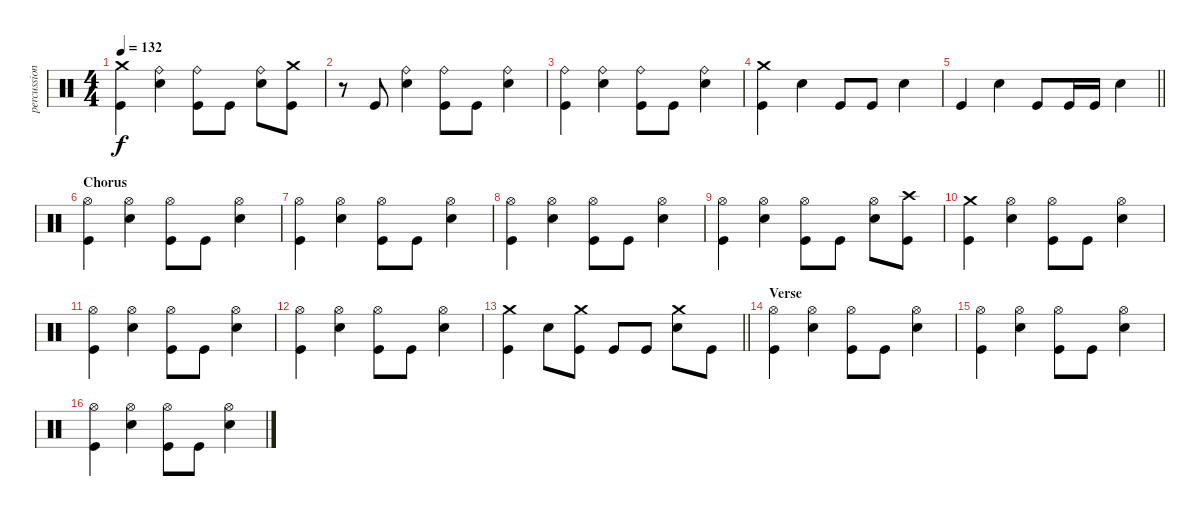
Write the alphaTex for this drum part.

\track ("percussion" "percussion") {instrument percussion}
\staff {score}
\articulation defaults
\ts (4 4)
\tempo 132
\clef neutral
\ks c
("Crash medium (hit)" "Kick (hit)").4{dy f} ("Ride (bell)" "Snare (hit) 2").4 ("Ride (bell)" "Kick (hit)").8 "Kick (hit)".8 ("Ride (bell)" "Snare (hit) 2").8 ("Crash medium (hit)" "Kick (hit)").8 |
r.8 "Kick (hit)".8 ("Ride (bell)" "Snare (hit) 2").4 ("Ride (bell)" "Kick (hit)").8 "Kick (hit)".8 ("Ride (bell)" "Snare (hit) 2").4 |
("Ride (bell)" "Kick (hit)").4 ("Ride (bell)" "Snare (hit) 2").4 ("Ride (bell)" "Kick (hit)").8 "Kick (hit)".8 ("Ride (bell)" "Snare (hit) 2").4 |
("Crash medium (hit)" "Kick (hit)").4 "Snare (hit) 2".4 "Kick (hit)".8 "Kick (hit)".8 "Snare (hit) 2".4 |
\barLineRight lightlight "Kick (hit)".4 "Snare (hit) 2".4 "Kick (hit)".8 "Kick (hit)".16 "Kick (hit)".16 "Snare (hit) 2".4
|
\section ("" "Chorus")
("Hi-Hat (open)" "Kick (hit)").4 ("Snare (hit) 2" "Hi-Hat (open)").4 ("Hi-Hat (open)" "Kick (hit)").8 "Kick (hit)".8 ("Snare (hit) 2" "Hi-Hat (open)").4 |
("Hi-Hat (open)" "Kick (hit)").4 ("Snare (hit) 2" "Hi-Hat (open)").4 ("Hi-Hat (open)" "Kick (hit)").8 "Kick (hit)".8 ("Snare (hit) 2" "Hi-Hat (open)").4 |
("Hi-Hat (open)" "Kick (hit)").4 ("Snare (hit) 2" "Hi-Hat (open)").4 ("Hi-Hat (open)" "Kick (hit)").8 "Kick (hit)".8 ("Snare (hit) 2" "Hi-Hat (open)").4 |
("Hi-Hat (open)" "Kick (hit)").4 ("Snare (hit) 2" "Hi-Hat (open)").4 ("Hi-Hat (open)" "Kick (hit)").8 "Kick (hit)".8 ("Snare (hit) 2" "Hi-Hat (open)").8 ("Crash high (hit)" "Kick (hit)").8 |
("Crash medium (hit)" "Kick (hit)").4 ("Snare (hit) 2" "Hi-Hat (open)").4 ("Hi-Hat (open)" "Kick (hit)").8 "Kick (hit)".8 ("Snare (hit) 2" "Hi-Hat (open)").4 |
("Hi-Hat (open)" "Kick (hit)").4 ("Snare (hit) 2" "Hi-Hat (open)").4 ("Hi-Hat (open)" "Kick (hit)").8 "Kick (hit)".8 ("Snare (hit) 2" "Hi-Hat (open)").4 |
("Hi-Hat (open)" "Kick (hit)").4 ("Snare (hit) 2" "Hi-Hat (open)").4 ("Hi-Hat (open)" "Kick (hit)").8 "Kick (hit)".8 ("Snare (hit) 2" "Hi-Hat (open)").4 |
\barLineRight lightlight
("Crash medium (hit)" "Kick (hit)").4 "Snare (hit) 2".8 ("Crash medium (hit)" "Kick (hit)").8 "Kick (hit)".8 "Kick (hit)".8 ("Crash medium (hit)" "Snare (hit) 2").8 "Kick (hit)".8 |
\section ("" "Verse")
("Hi-Hat (open)" "Kick (hit)").4 ("Snare (hit) 2" "Hi-Hat (open)").4 ("Hi-Hat (open)" "Kick (hit)").8 "Kick (hit)".8 ("Snare (hit) 2" "Hi-Hat (open)").4 |
("Hi-Hat (open)" "Kick (hit)").4 ("Snare (hit) 2" "Hi-Hat (open)").4 ("Hi-Hat (open)" "Kick (hit)").8 "Kick (hit)".8 ("Snare (hit) 2" "Hi-Hat (open)").4 |
("Hi-Hat (open)" "Kick (hit)").4 ("Snare (hit) 2" "Hi-Hat (open)").4 ("Hi-Hat (open)" "Kick (hit)").8 "Kick (hit)".8 ("Snare (hit) 2" "Hi-Hat (open)").4
